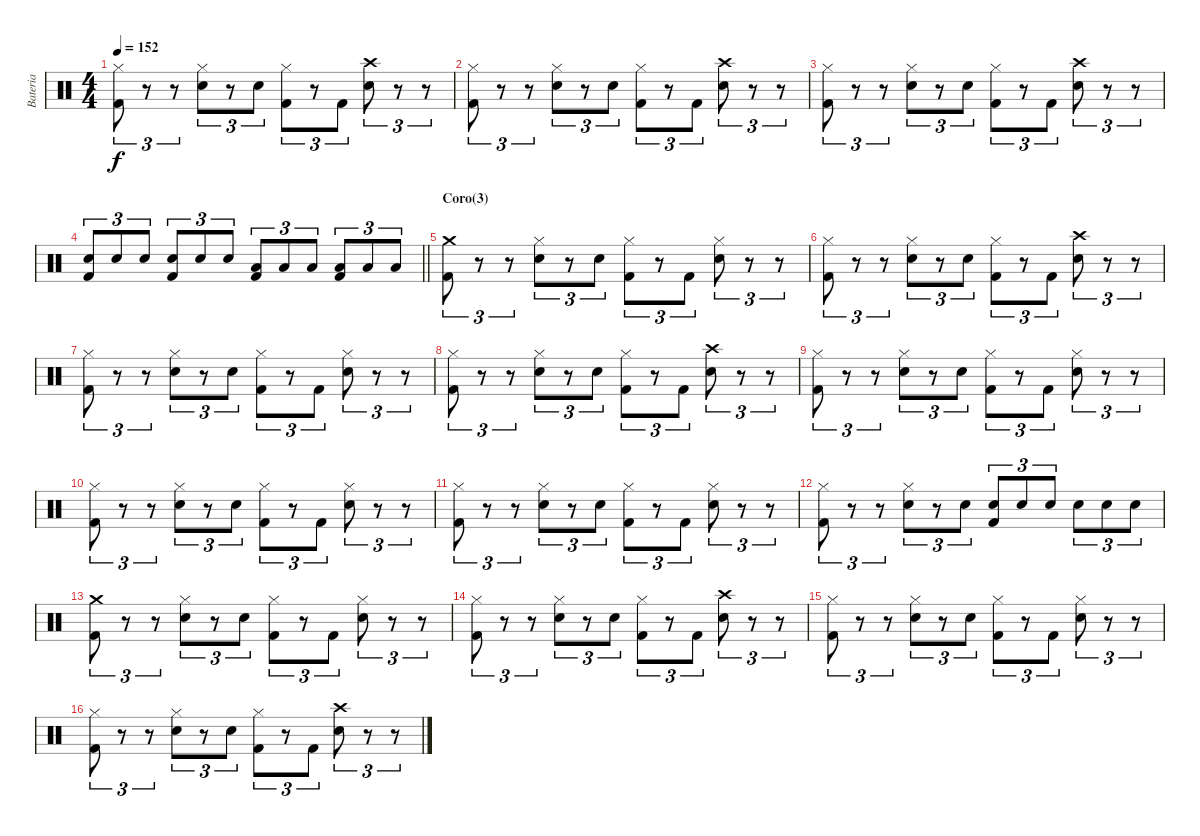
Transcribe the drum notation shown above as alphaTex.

\track ("Bateria" "Bateria") {instrument percussion}
\staff {score}
\articulation defaults
\ts (4 4)
\tempo 152
\clef neutral
\ks c
("Hi-Hat (closed)" "Kick (hit) 2").8{tu (3 2) dy f} r.8{tu (3 2)} r.8{tu (3 2)} ("Hi-Hat (closed)" "Snare (hit) 2").8{tu (3 2)} r.8{tu (3 2)} "Snare (hit) 2".8{tu (3 2)} ("Hi-Hat (closed)" "Kick (hit) 2").8{tu (3 2)} r.8{tu (3 2)} "Kick (hit) 2".8{tu (3 2)} ("Crash high (hit)" "Snare (hit) 2").8{tu (3 2)} r.8{tu (3 2)} r.8{tu (3 2)} |
("Hi-Hat (closed)" "Kick (hit) 2").8{tu (3 2)} r.8{tu (3 2)} r.8{tu (3 2)} ("Hi-Hat (closed)" "Snare (hit) 2").8{tu (3 2)} r.8{tu (3 2)} "Snare (hit) 2".8{tu (3 2)} ("Hi-Hat (closed)" "Kick (hit) 2").8{tu (3 2)} r.8{tu (3 2)} "Kick (hit) 2".8{tu (3 2)} ("Crash high (hit)" "Snare (hit) 2").8{tu (3 2)} r.8{tu (3 2)} r.8{tu (3 2)} |
("Hi-Hat (closed)" "Kick (hit) 2").8{tu (3 2)} r.8{tu (3 2)} r.8{tu (3 2)} ("Hi-Hat (closed)" "Snare (hit) 2").8{tu (3 2)} r.8{tu (3 2)} "Snare (hit) 2".8{tu (3 2)} ("Hi-Hat (closed)" "Kick (hit) 2").8{tu (3 2)} r.8{tu (3 2)} "Kick (hit) 2".8{tu (3 2)} ("Crash high (hit)" "Snare (hit) 2").8{tu (3 2)} r.8{tu (3 2)} r.8{tu (3 2)} |
\barLineRight lightlight
("Snare (hit) 2" "Kick (hit) 2").8{tu (3 2)} "Snare (hit) 2".8{tu (3 2)} "Snare (hit) 2".8{tu (3 2)} ("Snare (hit) 2" "Kick (hit) 2").8{tu (3 2)} "Snare (hit) 2".8{tu (3 2)} "Snare (hit) 2".8{tu (3 2)} ("Low Tom (hit)" "Kick (hit) 2").8{tu (3 2)} "Low Tom (hit)".8{tu (3 2)} "Low Tom (hit)".8{tu (3 2)} ("Low Floor Tom (hit)" "Kick (hit) 2").8{tu (3 2)} "Low Floor Tom (hit)".8{tu (3 2)} "Low Floor Tom (hit)".8{tu (3 2)} |
\section ("" "Coro(3)")
("Crash medium (hit)" "Kick (hit) 2").8{tu (3 2)} r.8{tu (3 2)} r.8{tu (3 2)} ("Hi-Hat (closed)" "Snare (hit) 2").8{tu (3 2)} r.8{tu (3 2)} "Snare (hit) 2".8{tu (3 2)} ("Hi-Hat (closed)" "Kick (hit) 2").8{tu (3 2)} r.8{tu (3 2)} "Kick (hit) 2".8{tu (3 2)} ("Hi-Hat (closed)" "Snare (hit) 2").8{tu (3 2)} r.8{tu (3 2)} r.8{tu (3 2)} |
("Hi-Hat (closed)" "Kick (hit) 2").8{tu (3 2)} r.8{tu (3 2)} r.8{tu (3 2)} ("Hi-Hat (closed)" "Snare (hit) 2").8{tu (3 2)} r.8{tu (3 2)} "Snare (hit) 2".8{tu (3 2)} ("Hi-Hat (closed)" "Kick (hit) 2").8{tu (3 2)} r.8{tu (3 2)} "Kick (hit) 2".8{tu (3 2)} ("Crash high (hit)" "Snare (hit) 2").8{tu (3 2)} r.8{tu (3 2)} r.8{tu (3 2)} |
("Hi-Hat (closed)" "Kick (hit) 2").8{tu (3 2)} r.8{tu (3 2)} r.8{tu (3 2)} ("Hi-Hat (closed)" "Snare (hit) 2").8{tu (3 2)} r.8{tu (3 2)} "Snare (hit) 2".8{tu (3 2)} ("Hi-Hat (closed)" "Kick (hit) 2").8{tu (3 2)} r.8{tu (3 2)} "Kick (hit) 2".8{tu (3 2)} ("Hi-Hat (closed)" "Snare (hit) 2").8{tu (3 2)} r.8{tu (3 2)} r.8{tu (3 2)} |
("Hi-Hat (closed)" "Kick (hit) 2").8{tu (3 2)} r.8{tu (3 2)} r.8{tu (3 2)} ("Hi-Hat (closed)" "Snare (hit) 2").8{tu (3 2)} r.8{tu (3 2)} "Snare (hit) 2".8{tu (3 2)} ("Hi-Hat (closed)" "Kick (hit) 2").8{tu (3 2)} r.8{tu (3 2)} "Kick (hit) 2".8{tu (3 2)} ("Crash high (hit)" "Snare (hit) 2").8{tu (3 2)} r.8{tu (3 2)} r.8{tu (3 2)} |
("Hi-Hat (closed)" "Kick (hit) 2").8{tu (3 2)} r.8{tu (3 2)} r.8{tu (3 2)} ("Hi-Hat (closed)" "Snare (hit) 2").8{tu (3 2)} r.8{tu (3 2)} "Snare (hit) 2".8{tu (3 2)} ("Hi-Hat (closed)" "Kick (hit) 2").8{tu (3 2)} r.8{tu (3 2)} "Kick (hit) 2".8{tu (3 2)} ("Hi-Hat (closed)" "Snare (hit) 2").8{tu (3 2)} r.8{tu (3 2)} r.8{tu (3 2)} |
("Hi-Hat (closed)" "Kick (hit) 2").8{tu (3 2)} r.8{tu (3 2)} r.8{tu (3 2)} ("Hi-Hat (closed)" "Snare (hit) 2").8{tu (3 2)} r.8{tu (3 2)} "Snare (hit) 2".8{tu (3 2)} ("Hi-Hat (closed)" "Kick (hit) 2").8{tu (3 2)} r.8{tu (3 2)} "Kick (hit) 2".8{tu (3 2)} ("Hi-Hat (closed)" "Snare (hit) 2").8{tu (3 2)} r.8{tu (3 2)} r.8{tu (3 2)} |
("Hi-Hat (closed)" "Kick (hit) 2").8{tu (3 2)} r.8{tu (3 2)} r.8{tu (3 2)} ("Hi-Hat (closed)" "Snare (hit) 2").8{tu (3 2)} r.8{tu (3 2)} "Snare (hit) 2".8{tu (3 2)} ("Hi-Hat (closed)" "Kick (hit) 2").8{tu (3 2)} r.8{tu (3 2)} "Kick (hit) 2".8{tu (3 2)} ("Hi-Hat (closed)" "Snare (hit) 2").8{tu (3 2)} r.8{tu (3 2)} r.8{tu (3 2)} |
("Hi-Hat (closed)" "Kick (hit) 2").8{tu (3 2)} r.8{tu (3 2)} r.8{tu (3 2)} ("Hi-Hat (closed)" "Snare (hit) 2").8{tu (3 2)} r.8{tu (3 2)} "Snare (hit) 2".8{tu (3 2)} ("Snare (hit) 2" "Kick (hit) 2").8{tu (3 2)} "Snare (hit) 2".8{tu (3 2)} "Snare (hit) 2".8{tu (3 2)} "Snare (hit) 2".8{tu (3 2)} "Snare (hit) 2".8{tu (3 2)} "Snare (hit) 2".8{tu (3 2)} |
("Crash medium (hit)" "Kick (hit) 2").8{tu (3 2)} r.8{tu (3 2)} r.8{tu (3 2)} ("Hi-Hat (closed)" "Snare (hit) 2").8{tu (3 2)} r.8{tu (3 2)} "Snare (hit) 2".8{tu (3 2)} ("Hi-Hat (closed)" "Kick (hit) 2").8{tu (3 2)} r.8{tu (3 2)} "Kick (hit) 2".8{tu (3 2)} ("Hi-Hat (closed)" "Snare (hit) 2").8{tu (3 2)} r.8{tu (3 2)} r.8{tu (3 2)} |
("Hi-Hat (closed)" "Kick (hit) 2").8{tu (3 2)} r.8{tu (3 2)} r.8{tu (3 2)} ("Hi-Hat (closed)" "Snare (hit) 2").8{tu (3 2)} r.8{tu (3 2)} "Snare (hit) 2".8{tu (3 2)} ("Hi-Hat (closed)" "Kick (hit) 2").8{tu (3 2)} r.8{tu (3 2)} "Kick (hit) 2".8{tu (3 2)} ("Crash high (hit)" "Snare (hit) 2").8{tu (3 2)} r.8{tu (3 2)} r.8{tu (3 2)} |
("Hi-Hat (closed)" "Kick (hit) 2").8{tu (3 2)} r.8{tu (3 2)} r.8{tu (3 2)} ("Hi-Hat (closed)" "Snare (hit) 2").8{tu (3 2)} r.8{tu (3 2)} "Snare (hit) 2".8{tu (3 2)} ("Hi-Hat (closed)" "Kick (hit) 2").8{tu (3 2)} r.8{tu (3 2)} "Kick (hit) 2".8{tu (3 2)} ("Hi-Hat (closed)" "Snare (hit) 2").8{tu (3 2)} r.8{tu (3 2)} r.8{tu (3 2)} |
("Hi-Hat (closed)" "Kick (hit) 2").8{tu (3 2)} r.8{tu (3 2)} r.8{tu (3 2)} ("Hi-Hat (closed)" "Snare (hit) 2").8{tu (3 2)} r.8{tu (3 2)} "Snare (hit) 2".8{tu (3 2)} ("Hi-Hat (closed)" "Kick (hit) 2").8{tu (3 2)} r.8{tu (3 2)} "Kick (hit) 2".8{tu (3 2)} ("Crash high (hit)" "Snare (hit) 2").8{tu (3 2)} r.8{tu (3 2)} r.8{tu (3 2)}
